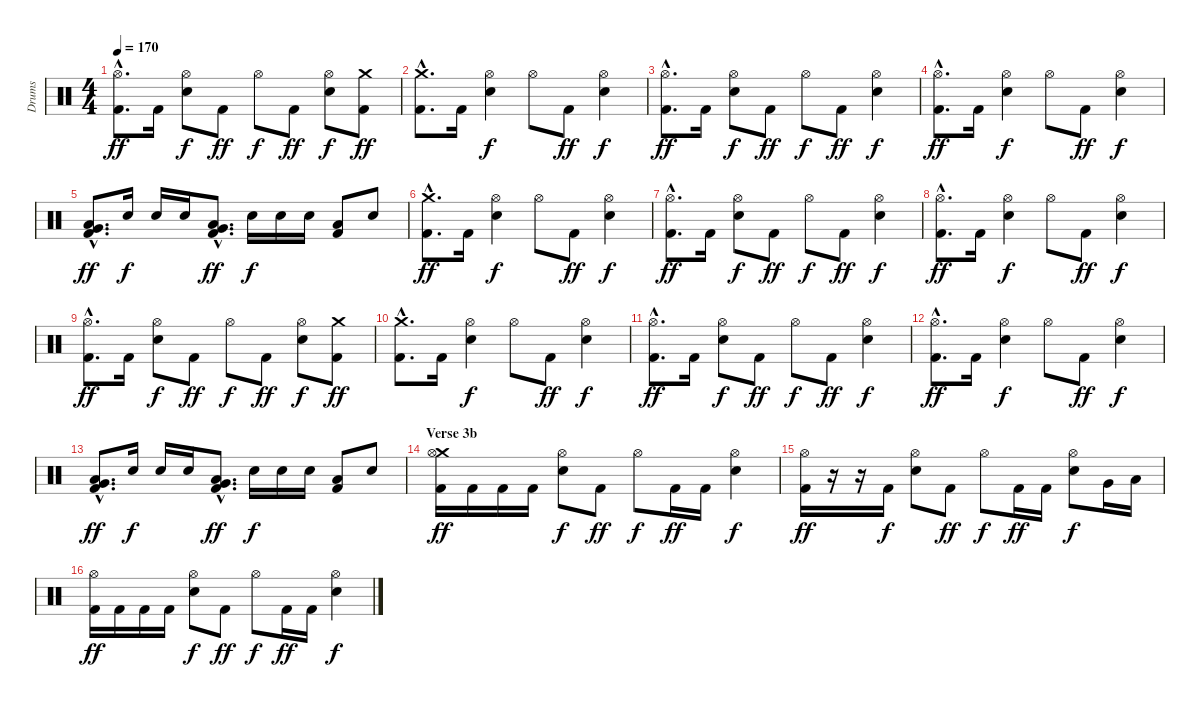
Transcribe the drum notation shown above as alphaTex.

\track ("Drums" "Drums") {instrument percussion}
\staff {score}
\articulation defaults
\ts (4 4)
\tempo 170
\clef neutral
\ks c
("Hi-Hat (open)"{hac} "Kick (hit) 2"{hac}).8{d dy ff} "Kick (hit) 2".16 ("Hi-Hat (open)" "Snare (hit) 2").8{dy f} "Kick (hit) 2".8{dy ff} "Hi-Hat (open)".8{dy f} "Kick (hit) 2".8{dy ff} ("Hi-Hat (open)" "Snare (hit) 2").8{dy f} ("Crash medium (hit)" "Kick (hit) 2").8{dy ff} |
("Crash medium (hit)"{hac} "Kick (hit) 2"{hac}).8{d} "Kick (hit) 2".16 ("Hi-Hat (open)" "Snare (hit) 2").4{dy f} "Hi-Hat (open)".8 "Kick (hit) 2".8{dy ff} ("Hi-Hat (open)" "Snare (hit) 2").4{dy f} |
("Hi-Hat (open)"{hac} "Kick (hit) 2"{hac}).8{d dy ff} "Kick (hit) 2".16 ("Hi-Hat (open)" "Snare (hit) 2").8{dy f} "Kick (hit) 2".8{dy ff} "Hi-Hat (open)".8{dy f} "Kick (hit) 2".8{dy ff} ("Hi-Hat (open)" "Snare (hit) 2").4{dy f} |
("Hi-Hat (open)"{hac} "Kick (hit) 2"{hac}).8{d dy ff} "Kick (hit) 2".16 ("Hi-Hat (open)" "Snare (hit) 2").4{dy f} "Hi-Hat (open)".8 "Kick (hit) 2".8{dy ff} ("Hi-Hat (open)" "Snare (hit) 2").4{dy f} |
("Low Tom (hit)"{hac} "Very Low Tom (hit)"{hac} "Kick (hit) 2"{hac}).8{d dy ff} "Snare (hit) 2".16{dy f} "Snare (hit) 2".16 "Snare (hit) 2".16 ("Very Low Tom (hit)"{hac} "Low Floor Tom (hit)"{hac} "Kick (hit) 2"{hac}).8{d dy ff} "Snare (hit) 2".16{dy f} "Snare (hit) 2".16 "Snare (hit) 2".16 ("Low Floor Tom (hit)" "Kick (hit) 2").8 "Snare (hit) 2".8 |
("Crash medium (hit)"{hac} "Kick (hit) 2"{hac}).8{d dy ff} "Kick (hit) 2".16 ("Hi-Hat (open)" "Snare (hit) 2").4{dy f} "Hi-Hat (open)".8 "Kick (hit) 2".8{dy ff} ("Hi-Hat (open)" "Snare (hit) 2").4{dy f} |
("Hi-Hat (open)"{hac} "Kick (hit) 2"{hac}).8{d dy ff} "Kick (hit) 2".16 ("Hi-Hat (open)" "Snare (hit) 2").8{dy f} "Kick (hit) 2".8{dy ff} "Hi-Hat (open)".8{dy f} "Kick (hit) 2".8{dy ff} ("Hi-Hat (open)" "Snare (hit) 2").4{dy f} |
("Hi-Hat (open)"{hac} "Kick (hit) 2"{hac}).8{d dy ff} "Kick (hit) 2".16 ("Hi-Hat (open)" "Snare (hit) 2").4{dy f} "Hi-Hat (open)".8 "Kick (hit) 2".8{dy ff} ("Hi-Hat (open)" "Snare (hit) 2").4{dy f} |
("Hi-Hat (open)"{hac} "Kick (hit) 2"{hac}).8{d dy ff} "Kick (hit) 2".16 ("Hi-Hat (open)" "Snare (hit) 2").8{dy f} "Kick (hit) 2".8{dy ff} "Hi-Hat (open)".8{dy f} "Kick (hit) 2".8{dy ff} ("Hi-Hat (open)" "Snare (hit) 2").8{dy f} ("Crash medium (hit)" "Kick (hit) 2").8{dy ff} |
("Crash medium (hit)"{hac} "Kick (hit) 2"{hac}).8{d} "Kick (hit) 2".16 ("Hi-Hat (open)" "Snare (hit) 2").4{dy f} "Hi-Hat (open)".8 "Kick (hit) 2".8{dy ff} ("Hi-Hat (open)" "Snare (hit) 2").4{dy f} |
("Hi-Hat (open)"{hac} "Kick (hit) 2"{hac}).8{d dy ff} "Kick (hit) 2".16 ("Hi-Hat (open)" "Snare (hit) 2").8{dy f} "Kick (hit) 2".8{dy ff} "Hi-Hat (open)".8{dy f} "Kick (hit) 2".8{dy ff} ("Hi-Hat (open)" "Snare (hit) 2").4{dy f} |
("Hi-Hat (open)"{hac} "Kick (hit) 2"{hac}).8{d dy ff} "Kick (hit) 2".16 ("Hi-Hat (open)" "Snare (hit) 2").4{dy f} "Hi-Hat (open)".8 "Kick (hit) 2".8{dy ff} ("Hi-Hat (open)" "Snare (hit) 2").4{dy f} |
("Low Tom (hit)"{hac} "Very Low Tom (hit)"{hac} "Kick (hit) 2"{hac}).8{d dy ff} "Snare (hit) 2".16{dy f} "Snare (hit) 2".16 "Snare (hit) 2".16 ("Very Low Tom (hit)"{hac} "Low Floor Tom (hit)"{hac} "Kick (hit) 2"{hac}).8{d dy ff} "Snare (hit) 2".16{dy f} "Snare (hit) 2".16 "Snare (hit) 2".16 ("Low Floor Tom (hit)" "Kick (hit) 2").8 "Snare (hit) 2".8 |
\section ("" "Verse 3b")
("Crash medium (hit)" "Hi-Hat (open)" "Kick (hit) 2").16{dy ff} "Kick (hit) 2".16 "Kick (hit) 2".16 "Kick (hit) 2".16 ("Hi-Hat (open)" "Snare (hit) 2").8{dy f} "Kick (hit) 2".8{dy ff} "Hi-Hat (open)".8{dy f} "Kick (hit) 2".16{dy ff} "Kick (hit) 2".16 ("Hi-Hat (open)" "Snare (hit) 2").4{dy f} |
("Hi-Hat (open)" "Kick (hit) 2").16{dy ff} r.16 r.16 "Kick (hit) 2".16{dy f} ("Hi-Hat (open)" "Snare (hit) 2").8 "Kick (hit) 2".8{dy ff} "Hi-Hat (open)".8{dy f} "Kick (hit) 2".16{dy ff} "Kick (hit) 2".16 ("Hi-Hat (open)" "Snare (hit) 2").8{dy f} "Very Low Tom (hit)".16 "Low Floor Tom (hit)".16 |
("Hi-Hat (open)" "Kick (hit) 2").16{dy ff} "Kick (hit) 2".16 "Kick (hit) 2".16 "Kick (hit) 2".16 ("Hi-Hat (open)" "Snare (hit) 2").8{dy f} "Kick (hit) 2".8{dy ff} "Hi-Hat (open)".8{dy f} "Kick (hit) 2".16{dy ff} "Kick (hit) 2".16 ("Hi-Hat (open)" "Snare (hit) 2").4{dy f}
